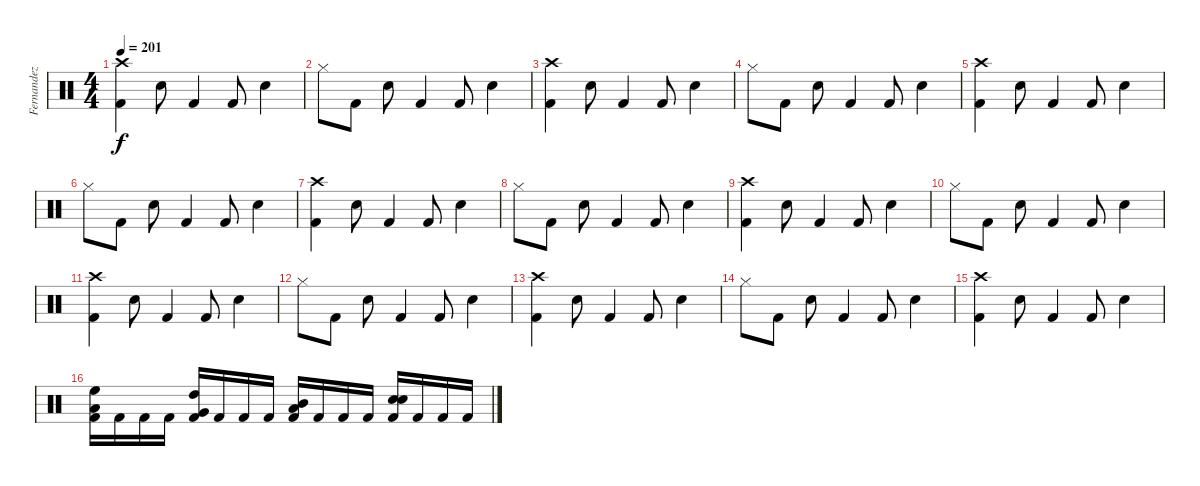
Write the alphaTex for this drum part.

\track ("Fernandez" "Fernandez") {instrument percussion}
\staff {score}
\articulation defaults
\ts (4 4)
\tempo 201
\clef neutral
\ks c
("Crash high (hit)" "Kick (hit) 2").4{dy f} "Snare (hit) 2".8 "Kick (hit) 2".4 "Kick (hit) 2".8 "Snare (hit) 2".4 |
"Hi-Hat (closed)".8 "Kick (hit) 2".8 "Snare (hit) 2".8 "Kick (hit) 2".4 "Kick (hit) 2".8 "Snare (hit) 2".4 |
("Crash high (hit)" "Kick (hit) 2").4 "Snare (hit) 2".8 "Kick (hit) 2".4 "Kick (hit) 2".8 "Snare (hit) 2".4 |
"Hi-Hat (closed)".8 "Kick (hit) 2".8 "Snare (hit) 2".8 "Kick (hit) 2".4 "Kick (hit) 2".8 "Snare (hit) 2".4 |
("Crash high (hit)" "Kick (hit) 2").4 "Snare (hit) 2".8 "Kick (hit) 2".4 "Kick (hit) 2".8 "Snare (hit) 2".4 |
"Hi-Hat (closed)".8 "Kick (hit) 2".8 "Snare (hit) 2".8 "Kick (hit) 2".4 "Kick (hit) 2".8 "Snare (hit) 2".4 |
("Crash high (hit)" "Kick (hit) 2").4 "Snare (hit) 2".8 "Kick (hit) 2".4 "Kick (hit) 2".8 "Snare (hit) 2".4 |
"Hi-Hat (closed)".8 "Kick (hit) 2".8 "Snare (hit) 2".8 "Kick (hit) 2".4 "Kick (hit) 2".8 "Snare (hit) 2".4 |
("Crash high (hit)" "Kick (hit) 2").4 "Snare (hit) 2".8 "Kick (hit) 2".4 "Kick (hit) 2".8 "Snare (hit) 2".4 |
"Hi-Hat (closed)".8 "Kick (hit) 2".8 "Snare (hit) 2".8 "Kick (hit) 2".4 "Kick (hit) 2".8 "Snare (hit) 2".4 |
("Crash high (hit)" "Kick (hit) 2").4 "Snare (hit) 2".8 "Kick (hit) 2".4 "Kick (hit) 2".8 "Snare (hit) 2".4 |
"Hi-Hat (closed)".8 "Kick (hit) 2".8 "Snare (hit) 2".8 "Kick (hit) 2".4 "Kick (hit) 2".8 "Snare (hit) 2".4 |
("Crash high (hit)" "Kick (hit) 2").4 "Snare (hit) 2".8 "Kick (hit) 2".4 "Kick (hit) 2".8 "Snare (hit) 2".4 |
"Hi-Hat (closed)".8 "Kick (hit) 2".8 "Snare (hit) 2".8 "Kick (hit) 2".4 "Kick (hit) 2".8 "Snare (hit) 2".4 |
("Crash high (hit)" "Kick (hit) 2").4 "Snare (hit) 2".8 "Kick (hit) 2".4 "Kick (hit) 2".8 "Snare (hit) 2".4 |
("Kick (hit) 2" "Low Tom (hit)" "High Floor Tom (hit)").16 "Kick (hit) 2".16 "Kick (hit) 2".16 "Kick (hit) 2".16 ("Kick (hit) 2" "High Tom (hit)" "Very Low Tom (hit)").16 "Kick (hit) 2".16 "Kick (hit) 2".16 "Kick (hit) 2".16 ("Kick (hit) 2" "Low Floor Tom (hit)" "Mid Tom (hit)").16 "Kick (hit) 2".16 "Kick (hit) 2".16 "Kick (hit) 2".16 ("Kick (hit) 2" "Snare (hit) 2" "Snare (hit) 2").16 "Kick (hit) 2".16 "Kick (hit) 2".16 "Kick (hit) 2".16
